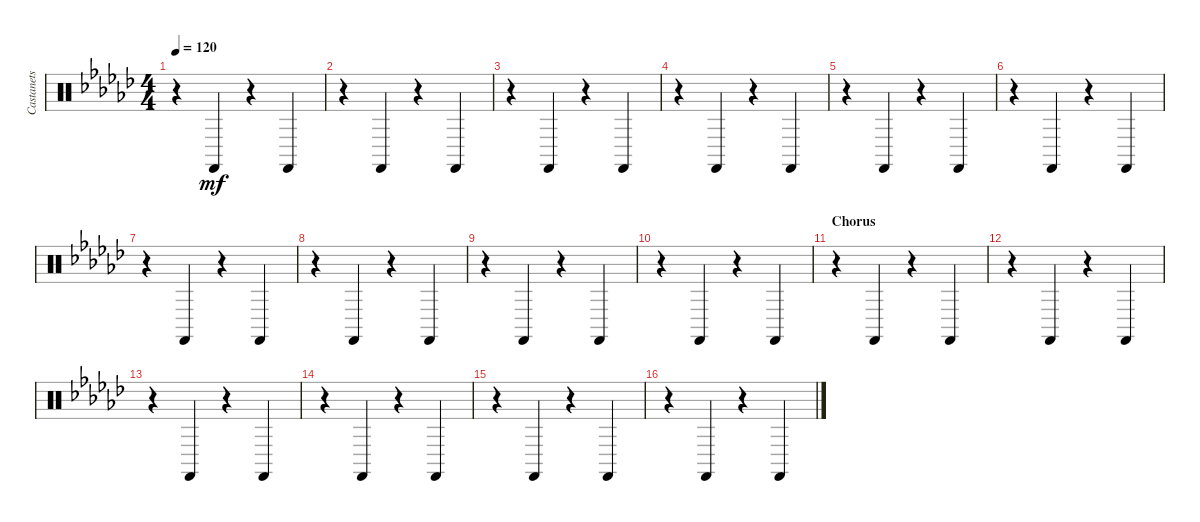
\track ("Castanets" "Castanets") {instrument percussion}
\staff {score}
\articulation defaults
\ts (4 4)
\tempo 120
\clef neutral
\ks ebminor
r.4{dy mf} "Castanets (hit)".4 r.4 "Castanets (hit)".4 |
r.4 "Castanets (hit)".4 r.4 "Castanets (hit)".4 |
r.4 "Castanets (hit)".4 r.4 "Castanets (hit)".4 |
r.4 "Castanets (hit)".4 r.4 "Castanets (hit)".4 |
r.4 "Castanets (hit)".4 r.4 "Castanets (hit)".4 |
r.4 "Castanets (hit)".4 r.4 "Castanets (hit)".4 |
r.4 "Castanets (hit)".4 r.4 "Castanets (hit)".4 |
r.4 "Castanets (hit)".4 r.4 "Castanets (hit)".4 |
r.4 "Castanets (hit)".4 r.4 "Castanets (hit)".4 |
r.4 "Castanets (hit)".4 r.4 "Castanets (hit)".4 |
\section ("" "Chorus")
r.4 "Castanets (hit)".4 r.4 "Castanets (hit)".4 |
r.4 "Castanets (hit)".4 r.4 "Castanets (hit)".4 |
r.4 "Castanets (hit)".4 r.4 "Castanets (hit)".4 |
r.4 "Castanets (hit)".4 r.4 "Castanets (hit)".4 |
r.4 "Castanets (hit)".4 r.4 "Castanets (hit)".4 |
r.4 "Castanets (hit)".4 r.4 "Castanets (hit)".4
